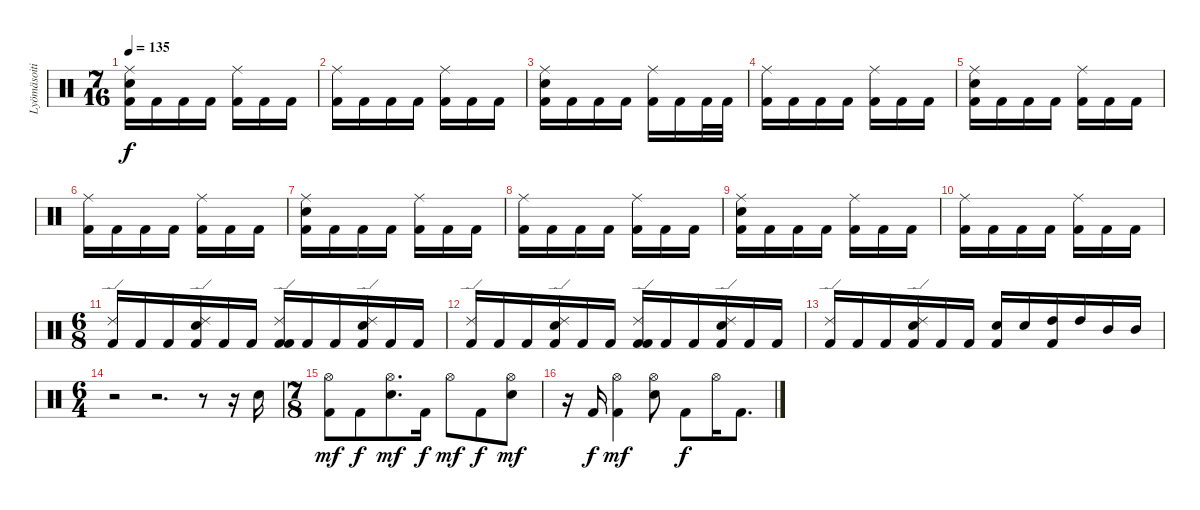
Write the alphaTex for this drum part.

\track ("Lyömäsoitin" "Lyömäsoiti") {instrument percussion}
\staff {score}
\articulation defaults
\ts (7 16)
\tempo 135
\clef neutral
\ks c
("Ride (middle)" "Electric Snare (hit)" "Kick (hit) 2").16{dy f} "Kick (hit) 2".16 "Kick (hit) 2".16 "Kick (hit) 2".16 ("Ride (middle)" "Kick (hit) 2").16 "Kick (hit) 2".16 "Kick (hit) 2".16 |
("Ride (middle)" "Kick (hit) 2").16 "Kick (hit) 2".16 "Kick (hit) 2".16 "Kick (hit) 2".16 ("Ride (middle)" "Kick (hit) 2").16 "Kick (hit) 2".16 "Kick (hit) 2".16 |
("Ride (middle)" "Electric Snare (hit)" "Kick (hit) 2").16 "Kick (hit) 2".16 "Kick (hit) 2".16 "Kick (hit) 2".16 ("Ride (middle)" "Kick (hit) 2").16 "Kick (hit) 2".16 "Kick (hit) 2".32 "Kick (hit) 2".32 |
("Ride (middle)" "Kick (hit) 2").16 "Kick (hit) 2".16 "Kick (hit) 2".16 "Kick (hit) 2".16 ("Ride (middle)" "Kick (hit) 2").16 "Kick (hit) 2".16 "Kick (hit) 2".16 |
("Ride (middle)" "Electric Snare (hit)" "Kick (hit) 2").16 "Kick (hit) 2".16 "Kick (hit) 2".16 "Kick (hit) 2".16 ("Ride (middle)" "Kick (hit) 2").16 "Kick (hit) 2".16 "Kick (hit) 2".16 |
("Ride (middle)" "Kick (hit) 2").16 "Kick (hit) 2".16 "Kick (hit) 2".16 "Kick (hit) 2".16 ("Ride (middle)" "Kick (hit) 2").16 "Kick (hit) 2".16 "Kick (hit) 2".16 |
("Ride (middle)" "Electric Snare (hit)" "Kick (hit) 2").16 "Kick (hit) 2".16 "Kick (hit) 2".16 "Kick (hit) 2".16 ("Ride (middle)" "Kick (hit) 2").16 "Kick (hit) 2".16 "Kick (hit) 2".16 |
("Ride (middle)" "Kick (hit) 2").16 "Kick (hit) 2".16 "Kick (hit) 2".16 "Kick (hit) 2".16 ("Ride (middle)" "Kick (hit) 2").16 "Kick (hit) 2".16 "Kick (hit) 2".16 |
("Ride (middle)" "Electric Snare (hit)" "Kick (hit) 2").16 "Kick (hit) 2".16 "Kick (hit) 2".16 "Kick (hit) 2".16 ("Ride (middle)" "Kick (hit) 2").16 "Kick (hit) 2".16 "Kick (hit) 2".16 |
("Ride (middle)" "Kick (hit) 2").16 "Kick (hit) 2".16 "Kick (hit) 2".16 "Kick (hit) 2".16 ("Ride (middle)" "Kick (hit) 2").16 "Kick (hit) 2".16 "Kick (hit) 2".16 |
\ts (6 8)
("Ride (edge) 2" "Kick (hit) 2").16 "Kick (hit) 2".16 "Kick (hit) 2".16 ("Ride (edge) 2" "Electric Snare (hit)" "Kick (hit) 2").16 "Kick (hit) 2".16 "Kick (hit) 2".16 ("Ride (edge) 2" "Kick (hit) 2" "Kick (hit) 2").16 "Kick (hit) 2".16 "Kick (hit) 2".16 ("Ride (edge) 2" "Electric Snare (hit)" "Kick (hit) 2").16 "Kick (hit) 2".16 "Kick (hit) 2".16 |
("Ride (edge) 2" "Kick (hit) 2").16 "Kick (hit) 2".16 "Kick (hit) 2".16 ("Ride (edge) 2" "Electric Snare (hit)" "Kick (hit) 2").16 "Kick (hit) 2".16 "Kick (hit) 2".16 ("Ride (edge) 2" "Kick (hit) 2" "Kick (hit) 2").16 "Kick (hit) 2".16 "Kick (hit) 2".16 ("Ride (edge) 2" "Electric Snare (hit)" "Kick (hit) 2").16 "Kick (hit) 2".16 "Kick (hit) 2".16 |
("Ride (edge) 2" "Kick (hit) 2").16 "Kick (hit) 2".16 "Kick (hit) 2".16 ("Ride (edge) 2" "Electric Snare (hit)" "Kick (hit) 2").16 "Kick (hit) 2".16 "Kick (hit) 2".16 ("Electric Snare (hit)" "Kick (hit) 2").16 "Electric Snare (hit)".16 ("High Tom (hit)" "Kick (hit) 2").16 "High Tom (hit)".16 "Mid Tom (hit)".16 "Mid Tom (hit)".16 |
\ts (6 4)
r.2 r.2{d} r.8 r.16 "Electric Snare (hit)".16 |
\ts (7 8)
("Hi-Hat (open)" "Kick (hit) 2").8{dy mf} "Kick (hit) 2".8{dy f} ("Hi-Hat (open)" "Electric Snare (hit)").8{d dy mf} "Kick (hit) 2".16{dy f} "Hi-Hat (open)".8{dy mf} "Kick (hit) 2".8{dy f} ("Hi-Hat (open)" "Electric Snare (hit)").8{dy mf} |
r.16 "Kick (hit) 2".16{dy f} ("Hi-Hat (open)" "Kick (hit) 2").4{dy mf} ("Hi-Hat (open)" "Electric Snare (hit)").8 "Kick (hit) 2".8{dy f} "Hi-Hat (open)".16 "Kick (hit) 2".8{d}
